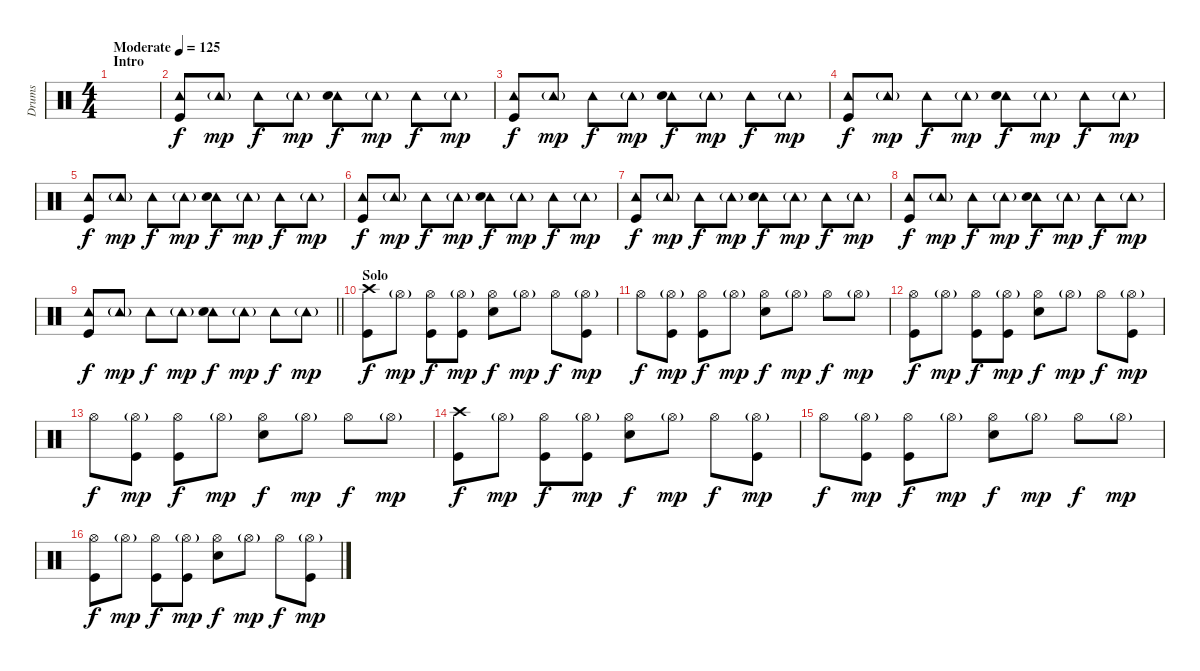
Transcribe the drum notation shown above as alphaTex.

\track ("Drums" "Drums") {instrument percussion}
\staff {score}
\articulation defaults
\ts (4 4)
\section ("" "Intro")
\tempo (125 "Moderate")
\clef neutral
\ks c
|
("Tambourine (hit)" "Kick (hit)").8 "Tambourine (hit)"{g}.8{dy mp} "Tambourine (hit)".8{dy f} "Tambourine (hit)"{g}.8{dy mp} ("Tambourine (hit)" "Hand Clap (hit)").8{dy f} "Tambourine (hit)"{g}.8{dy mp} "Tambourine (hit)".8{dy f} "Tambourine (hit)"{g}.8{dy mp} |
("Tambourine (hit)" "Kick (hit)").8{dy f} "Tambourine (hit)"{g}.8{dy mp} "Tambourine (hit)".8{dy f} "Tambourine (hit)"{g}.8{dy mp} ("Tambourine (hit)" "Hand Clap (hit)").8{dy f} "Tambourine (hit)"{g}.8{dy mp} "Tambourine (hit)".8{dy f} "Tambourine (hit)"{g}.8{dy mp} |
("Tambourine (hit)" "Kick (hit)").8{dy f} "Tambourine (hit)"{g}.8{dy mp} "Tambourine (hit)".8{dy f} "Tambourine (hit)"{g}.8{dy mp} ("Tambourine (hit)" "Hand Clap (hit)").8{dy f} "Tambourine (hit)"{g}.8{dy mp} "Tambourine (hit)".8{dy f} "Tambourine (hit)"{g}.8{dy mp} |
("Tambourine (hit)" "Kick (hit)").8{dy f} "Tambourine (hit)"{g}.8{dy mp} "Tambourine (hit)".8{dy f} "Tambourine (hit)"{g}.8{dy mp} ("Tambourine (hit)" "Hand Clap (hit)").8{dy f} "Tambourine (hit)"{g}.8{dy mp} "Tambourine (hit)".8{dy f} "Tambourine (hit)"{g}.8{dy mp} |
("Tambourine (hit)" "Kick (hit)").8{dy f} "Tambourine (hit)"{g}.8{dy mp} "Tambourine (hit)".8{dy f} "Tambourine (hit)"{g}.8{dy mp} ("Tambourine (hit)" "Hand Clap (hit)").8{dy f} "Tambourine (hit)"{g}.8{dy mp} "Tambourine (hit)".8{dy f} "Tambourine (hit)"{g}.8{dy mp} |
("Tambourine (hit)" "Kick (hit)").8{dy f} "Tambourine (hit)"{g}.8{dy mp} "Tambourine (hit)".8{dy f} "Tambourine (hit)"{g}.8{dy mp} ("Tambourine (hit)" "Hand Clap (hit)").8{dy f} "Tambourine (hit)"{g}.8{dy mp} "Tambourine (hit)".8{dy f} "Tambourine (hit)"{g}.8{dy mp} |
("Tambourine (hit)" "Kick (hit)").8{dy f} "Tambourine (hit)"{g}.8{dy mp} "Tambourine (hit)".8{dy f} "Tambourine (hit)"{g}.8{dy mp} ("Tambourine (hit)" "Hand Clap (hit)").8{dy f} "Tambourine (hit)"{g}.8{dy mp} "Tambourine (hit)".8{dy f} "Tambourine (hit)"{g}.8{dy mp} |
\barLineRight lightlight
("Tambourine (hit)" "Kick (hit)").8{dy f} "Tambourine (hit)"{g}.8{dy mp} "Tambourine (hit)".8{dy f} "Tambourine (hit)"{g}.8{dy mp} ("Tambourine (hit)" "Hand Clap (hit)").8{dy f} "Tambourine (hit)"{g}.8{dy mp} "Tambourine (hit)".8{dy f} "Tambourine (hit)"{g}.8{dy mp} |
\section ("" "Solo")
("Crash high (hit)" "Kick (hit)").8{dy f} "Hi-Hat (open)"{g}.8{dy mp} ("Hi-Hat (open)" "Kick (hit)").8{dy f} ("Hi-Hat (open)"{g} "Kick (hit)").8{dy mp} ("Hi-Hat (open)" "Electric Snare (hit)").8{dy f} "Hi-Hat (open)"{g}.8{dy mp} "Hi-Hat (open)".8{dy f} ("Hi-Hat (open)"{g} "Kick (hit)").8{dy mp} |
"Hi-Hat (open)".8{dy f} ("Hi-Hat (open)"{g} "Kick (hit)").8{dy mp} ("Hi-Hat (open)" "Kick (hit)").8{dy f} "Hi-Hat (open)"{g}.8{dy mp} ("Hi-Hat (open)" "Electric Snare (hit)").8{dy f} "Hi-Hat (open)"{g}.8{dy mp} "Hi-Hat (open)".8{dy f} "Hi-Hat (open)"{g}.8{dy mp} |
("Hi-Hat (open)" "Kick (hit)").8{dy f} "Hi-Hat (open)"{g}.8{dy mp} ("Hi-Hat (open)" "Kick (hit)").8{dy f} ("Hi-Hat (open)"{g} "Kick (hit)").8{dy mp} ("Hi-Hat (open)" "Electric Snare (hit)").8{dy f} "Hi-Hat (open)"{g}.8{dy mp} "Hi-Hat (open)".8{dy f} ("Hi-Hat (open)"{g} "Kick (hit)").8{dy mp} |
"Hi-Hat (open)".8{dy f} ("Hi-Hat (open)"{g} "Kick (hit)").8{dy mp} ("Hi-Hat (open)" "Kick (hit)").8{dy f} "Hi-Hat (open)"{g}.8{dy mp} ("Hi-Hat (open)" "Electric Snare (hit)").8{dy f} "Hi-Hat (open)"{g}.8{dy mp} "Hi-Hat (open)".8{dy f} "Hi-Hat (open)"{g}.8{dy mp} |
("Crash high (hit)" "Kick (hit)").8{dy f} "Hi-Hat (open)"{g}.8{dy mp} ("Hi-Hat (open)" "Kick (hit)").8{dy f} ("Hi-Hat (open)"{g} "Kick (hit)").8{dy mp} ("Hi-Hat (open)" "Electric Snare (hit)").8{dy f} "Hi-Hat (open)"{g}.8{dy mp} "Hi-Hat (open)".8{dy f} ("Hi-Hat (open)"{g} "Kick (hit)").8{dy mp} |
"Hi-Hat (open)".8{dy f} ("Hi-Hat (open)"{g} "Kick (hit)").8{dy mp} ("Hi-Hat (open)" "Kick (hit)").8{dy f} "Hi-Hat (open)"{g}.8{dy mp} ("Hi-Hat (open)" "Electric Snare (hit)").8{dy f} "Hi-Hat (open)"{g}.8{dy mp} "Hi-Hat (open)".8{dy f} "Hi-Hat (open)"{g}.8{dy mp} |
("Hi-Hat (open)" "Kick (hit)").8{dy f} "Hi-Hat (open)"{g}.8{dy mp} ("Hi-Hat (open)" "Kick (hit)").8{dy f} ("Hi-Hat (open)"{g} "Kick (hit)").8{dy mp} ("Hi-Hat (open)" "Electric Snare (hit)").8{dy f} "Hi-Hat (open)"{g}.8{dy mp} "Hi-Hat (open)".8{dy f} ("Hi-Hat (open)"{g} "Kick (hit)").8{dy mp}
